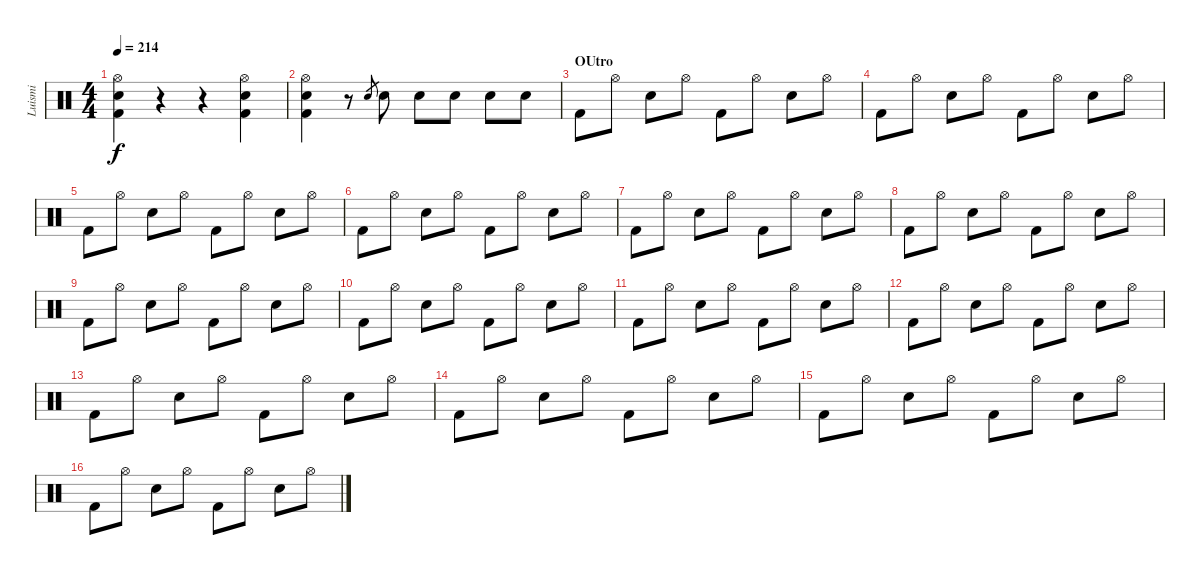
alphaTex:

\track ("Luismi" "Luismi") {instrument percussion}
\staff {score}
\articulation defaults
\ts (4 4)
\tempo 214
\clef neutral
\ks c
("Hi-Hat (open)" "Snare (hit) 2" "Kick (hit) 2").4{dy f} r.4 r.4 ("Hi-Hat (open)" "Snare (hit) 2" "Kick (hit) 2").4 |
("Hi-Hat (open)" "Snare (hit) 2" "Kick (hit) 2").4 r.8 "Snare (hit) 2".8{gr} "Snare (hit) 2".8 "Snare (hit) 2".8 "Snare (hit) 2".8 "Snare (hit) 2".8 "Snare (hit) 2".8 |
\section ("" "OUtro")
"Kick (hit) 2".8 "Hi-Hat (open)".8 "Snare (hit) 2".8 "Hi-Hat (open)".8 "Kick (hit) 2".8 "Hi-Hat (open)".8 "Snare (hit) 2".8 "Hi-Hat (open)".8 |
"Kick (hit) 2".8 "Hi-Hat (open)".8 "Snare (hit) 2".8 "Hi-Hat (open)".8 "Kick (hit) 2".8 "Hi-Hat (open)".8 "Snare (hit) 2".8 "Hi-Hat (open)".8 |
"Kick (hit) 2".8 "Hi-Hat (open)".8 "Snare (hit) 2".8 "Hi-Hat (open)".8 "Kick (hit) 2".8 "Hi-Hat (open)".8 "Snare (hit) 2".8 "Hi-Hat (open)".8 |
"Kick (hit) 2".8 "Hi-Hat (open)".8 "Snare (hit) 2".8 "Hi-Hat (open)".8 "Kick (hit) 2".8 "Hi-Hat (open)".8 "Snare (hit) 2".8 "Hi-Hat (open)".8 |
"Kick (hit) 2".8 "Hi-Hat (open)".8 "Snare (hit) 2".8 "Hi-Hat (open)".8 "Kick (hit) 2".8 "Hi-Hat (open)".8 "Snare (hit) 2".8 "Hi-Hat (open)".8 |
"Kick (hit) 2".8 "Hi-Hat (open)".8 "Snare (hit) 2".8 "Hi-Hat (open)".8 "Kick (hit) 2".8 "Hi-Hat (open)".8 "Snare (hit) 2".8 "Hi-Hat (open)".8 |
"Kick (hit) 2".8 "Hi-Hat (open)".8 "Snare (hit) 2".8 "Hi-Hat (open)".8 "Kick (hit) 2".8 "Hi-Hat (open)".8 "Snare (hit) 2".8 "Hi-Hat (open)".8 |
"Kick (hit) 2".8 "Hi-Hat (open)".8 "Snare (hit) 2".8 "Hi-Hat (open)".8 "Kick (hit) 2".8 "Hi-Hat (open)".8 "Snare (hit) 2".8 "Hi-Hat (open)".8 |
"Kick (hit) 2".8 "Hi-Hat (open)".8 "Snare (hit) 2".8 "Hi-Hat (open)".8 "Kick (hit) 2".8 "Hi-Hat (open)".8 "Snare (hit) 2".8 "Hi-Hat (open)".8 |
"Kick (hit) 2".8 "Hi-Hat (open)".8 "Snare (hit) 2".8 "Hi-Hat (open)".8 "Kick (hit) 2".8 "Hi-Hat (open)".8 "Snare (hit) 2".8 "Hi-Hat (open)".8 |
"Kick (hit) 2".8 "Hi-Hat (open)".8 "Snare (hit) 2".8 "Hi-Hat (open)".8 "Kick (hit) 2".8 "Hi-Hat (open)".8 "Snare (hit) 2".8 "Hi-Hat (open)".8 |
"Kick (hit) 2".8 "Hi-Hat (open)".8 "Snare (hit) 2".8 "Hi-Hat (open)".8 "Kick (hit) 2".8 "Hi-Hat (open)".8 "Snare (hit) 2".8 "Hi-Hat (open)".8 |
"Kick (hit) 2".8 "Hi-Hat (open)".8 "Snare (hit) 2".8 "Hi-Hat (open)".8 "Kick (hit) 2".8 "Hi-Hat (open)".8 "Snare (hit) 2".8 "Hi-Hat (open)".8 |
"Kick (hit) 2".8 "Hi-Hat (open)".8 "Snare (hit) 2".8 "Hi-Hat (open)".8 "Kick (hit) 2".8 "Hi-Hat (open)".8 "Snare (hit) 2".8 "Hi-Hat (open)".8
